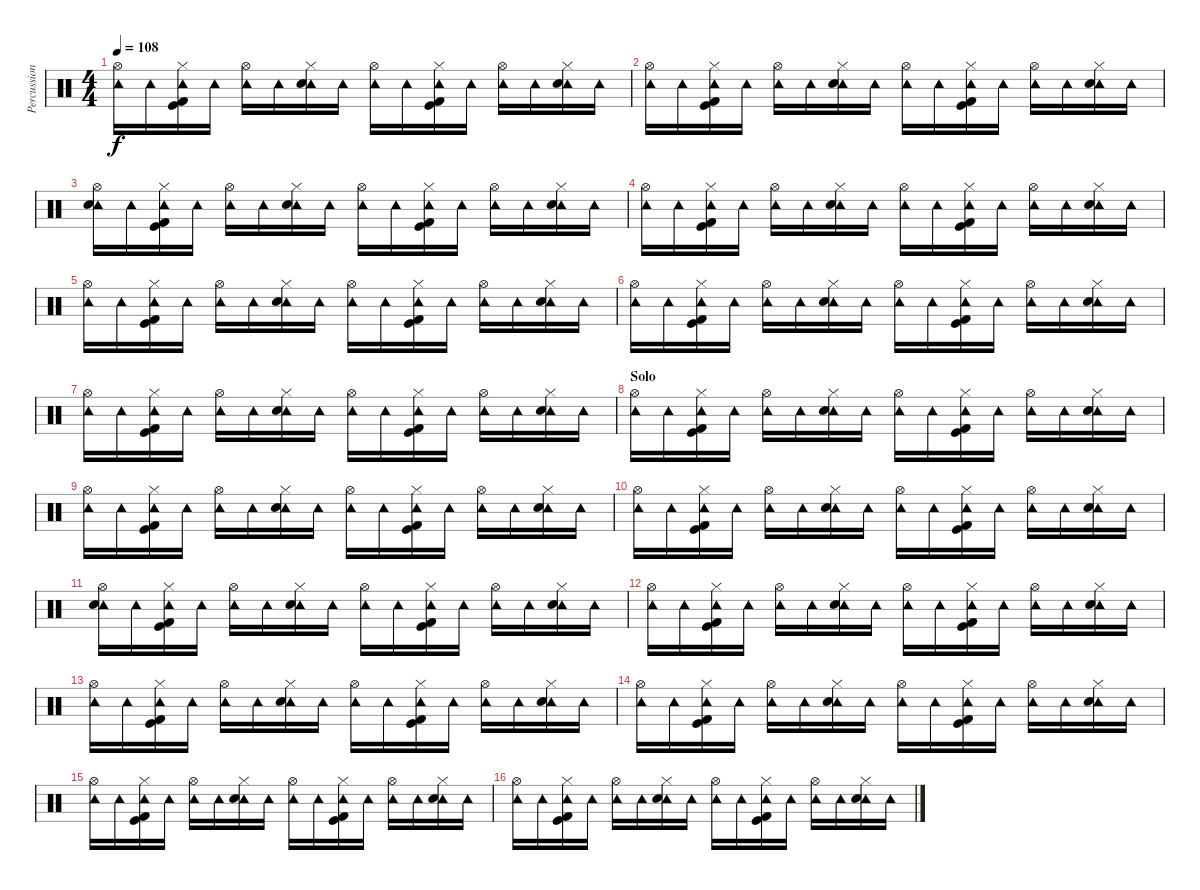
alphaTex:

\track ("Percussion" "Percussion") {instrument percussion}
\staff {score}
\articulation defaults
\ts (4 4)
\tempo 108
\clef neutral
\ks c
("Hi-Hat (open)" "Tambourine (hit)").16{dy f} "Tambourine (hit)".16 ("Hi-Hat (closed)" "Tambourine (hit)" "Kick (hit)" "Kick (hit) 2").16 "Tambourine (hit)".16 ("Hi-Hat (open)" "Tambourine (hit)").16 "Tambourine (hit)".16 ("Hi-Hat (closed)" "Tambourine (hit)" "Snare (hit) 2").16 "Tambourine (hit)".16 ("Hi-Hat (open)" "Tambourine (hit)").16 "Tambourine (hit)".16 ("Hi-Hat (closed)" "Tambourine (hit)" "Kick (hit)" "Kick (hit) 2").16 "Tambourine (hit)".16 ("Hi-Hat (open)" "Tambourine (hit)").16 "Tambourine (hit)".16 ("Hi-Hat (closed)" "Tambourine (hit)" "Snare (hit) 2").16 "Tambourine (hit)".16 |
("Hi-Hat (open)" "Tambourine (hit)").16 "Tambourine (hit)".16 ("Hi-Hat (closed)" "Tambourine (hit)" "Kick (hit)" "Kick (hit) 2").16 "Tambourine (hit)".16 ("Hi-Hat (open)" "Tambourine (hit)").16 "Tambourine (hit)".16 ("Hi-Hat (closed)" "Tambourine (hit)" "Snare (hit) 2").16 "Tambourine (hit)".16 ("Hi-Hat (open)" "Tambourine (hit)").16 "Tambourine (hit)".16 ("Hi-Hat (closed)" "Tambourine (hit)" "Kick (hit)" "Kick (hit) 2").16 "Tambourine (hit)".16 ("Hi-Hat (open)" "Tambourine (hit)").16 "Tambourine (hit)".16 ("Hi-Hat (closed)" "Tambourine (hit)" "Snare (hit) 2").16 "Tambourine (hit)".16 |
("Hi-Hat (open)" "Tambourine (hit)" "Snare (hit) 2").16 "Tambourine (hit)".16 ("Hi-Hat (closed)" "Tambourine (hit)" "Kick (hit)" "Kick (hit) 2").16 "Tambourine (hit)".16 ("Hi-Hat (open)" "Tambourine (hit)").16 "Tambourine (hit)".16 ("Hi-Hat (closed)" "Tambourine (hit)" "Snare (hit) 2").16 "Tambourine (hit)".16 ("Hi-Hat (open)" "Tambourine (hit)").16 "Tambourine (hit)".16 ("Hi-Hat (closed)" "Tambourine (hit)" "Kick (hit)" "Kick (hit) 2").16 "Tambourine (hit)".16 ("Hi-Hat (open)" "Tambourine (hit)").16 "Tambourine (hit)".16 ("Hi-Hat (closed)" "Tambourine (hit)" "Snare (hit) 2").16 "Tambourine (hit)".16 |
("Hi-Hat (open)" "Tambourine (hit)").16 "Tambourine (hit)".16 ("Hi-Hat (closed)" "Tambourine (hit)" "Kick (hit)" "Kick (hit) 2").16 "Tambourine (hit)".16 ("Hi-Hat (open)" "Tambourine (hit)").16 "Tambourine (hit)".16 ("Hi-Hat (closed)" "Tambourine (hit)" "Snare (hit) 2").16 "Tambourine (hit)".16 ("Hi-Hat (open)" "Tambourine (hit)").16 "Tambourine (hit)".16 ("Hi-Hat (closed)" "Tambourine (hit)" "Kick (hit)" "Kick (hit) 2").16 "Tambourine (hit)".16 ("Hi-Hat (open)" "Tambourine (hit)").16 "Tambourine (hit)".16 ("Hi-Hat (closed)" "Tambourine (hit)" "Snare (hit) 2").16 "Tambourine (hit)".16 |
("Hi-Hat (open)" "Tambourine (hit)").16 "Tambourine (hit)".16 ("Hi-Hat (closed)" "Tambourine (hit)" "Kick (hit)" "Kick (hit) 2").16 "Tambourine (hit)".16 ("Hi-Hat (open)" "Tambourine (hit)").16 "Tambourine (hit)".16 ("Hi-Hat (closed)" "Tambourine (hit)" "Snare (hit) 2").16 "Tambourine (hit)".16 ("Hi-Hat (open)" "Tambourine (hit)").16 "Tambourine (hit)".16 ("Hi-Hat (closed)" "Tambourine (hit)" "Kick (hit)" "Kick (hit) 2").16 "Tambourine (hit)".16 ("Hi-Hat (open)" "Tambourine (hit)").16 "Tambourine (hit)".16 ("Hi-Hat (closed)" "Tambourine (hit)" "Snare (hit) 2").16 "Tambourine (hit)".16 |
("Hi-Hat (open)" "Tambourine (hit)").16 "Tambourine (hit)".16 ("Hi-Hat (closed)" "Tambourine (hit)" "Kick (hit)" "Kick (hit) 2").16 "Tambourine (hit)".16 ("Hi-Hat (open)" "Tambourine (hit)").16 "Tambourine (hit)".16 ("Hi-Hat (closed)" "Tambourine (hit)" "Snare (hit) 2").16 "Tambourine (hit)".16 ("Hi-Hat (open)" "Tambourine (hit)").16 "Tambourine (hit)".16 ("Hi-Hat (closed)" "Tambourine (hit)" "Kick (hit)" "Kick (hit) 2").16 "Tambourine (hit)".16 ("Hi-Hat (open)" "Tambourine (hit)").16 "Tambourine (hit)".16 ("Hi-Hat (closed)" "Tambourine (hit)" "Snare (hit) 2").16 "Tambourine (hit)".16 |
("Hi-Hat (open)" "Tambourine (hit)").16 "Tambourine (hit)".16 ("Hi-Hat (closed)" "Tambourine (hit)" "Kick (hit)" "Kick (hit) 2").16 "Tambourine (hit)".16 ("Hi-Hat (open)" "Tambourine (hit)").16 "Tambourine (hit)".16 ("Hi-Hat (closed)" "Tambourine (hit)" "Snare (hit) 2").16 "Tambourine (hit)".16 ("Hi-Hat (open)" "Tambourine (hit)").16 "Tambourine (hit)".16 ("Hi-Hat (closed)" "Tambourine (hit)" "Kick (hit)" "Kick (hit) 2").16 "Tambourine (hit)".16 ("Hi-Hat (open)" "Tambourine (hit)").16 "Tambourine (hit)".16 ("Hi-Hat (closed)" "Tambourine (hit)" "Snare (hit) 2").16 "Tambourine (hit)".16 |
\section ("" "Solo")
("Hi-Hat (open)" "Tambourine (hit)").16 "Tambourine (hit)".16 ("Hi-Hat (closed)" "Tambourine (hit)" "Kick (hit)" "Kick (hit) 2").16 "Tambourine (hit)".16 ("Hi-Hat (open)" "Tambourine (hit)").16 "Tambourine (hit)".16 ("Hi-Hat (closed)" "Tambourine (hit)" "Snare (hit) 2").16 "Tambourine (hit)".16 ("Hi-Hat (open)" "Tambourine (hit)").16 "Tambourine (hit)".16 ("Hi-Hat (closed)" "Tambourine (hit)" "Kick (hit)" "Kick (hit) 2").16 "Tambourine (hit)".16 ("Hi-Hat (open)" "Tambourine (hit)").16 "Tambourine (hit)".16 ("Hi-Hat (closed)" "Tambourine (hit)" "Snare (hit) 2").16 "Tambourine (hit)".16 |
("Hi-Hat (open)" "Tambourine (hit)").16 "Tambourine (hit)".16 ("Hi-Hat (closed)" "Tambourine (hit)" "Kick (hit)" "Kick (hit) 2").16 "Tambourine (hit)".16 ("Hi-Hat (open)" "Tambourine (hit)").16 "Tambourine (hit)".16 ("Hi-Hat (closed)" "Tambourine (hit)" "Snare (hit) 2").16 "Tambourine (hit)".16 ("Hi-Hat (open)" "Tambourine (hit)").16 "Tambourine (hit)".16 ("Hi-Hat (closed)" "Tambourine (hit)" "Kick (hit)" "Kick (hit) 2").16 "Tambourine (hit)".16 ("Hi-Hat (open)" "Tambourine (hit)").16 "Tambourine (hit)".16 ("Hi-Hat (closed)" "Tambourine (hit)" "Snare (hit) 2").16 "Tambourine (hit)".16 |
("Hi-Hat (open)" "Tambourine (hit)").16 "Tambourine (hit)".16 ("Hi-Hat (closed)" "Tambourine (hit)" "Kick (hit)" "Kick (hit) 2").16 "Tambourine (hit)".16 ("Hi-Hat (open)" "Tambourine (hit)").16 "Tambourine (hit)".16 ("Hi-Hat (closed)" "Tambourine (hit)" "Snare (hit) 2").16 "Tambourine (hit)".16 ("Hi-Hat (open)" "Tambourine (hit)").16 "Tambourine (hit)".16 ("Hi-Hat (closed)" "Tambourine (hit)" "Kick (hit)" "Kick (hit) 2").16 "Tambourine (hit)".16 ("Hi-Hat (open)" "Tambourine (hit)").16 "Tambourine (hit)".16 ("Hi-Hat (closed)" "Tambourine (hit)" "Snare (hit) 2").16 "Tambourine (hit)".16 |
("Hi-Hat (open)" "Tambourine (hit)" "Snare (hit) 2").16 "Tambourine (hit)".16 ("Hi-Hat (closed)" "Tambourine (hit)" "Kick (hit)" "Kick (hit) 2").16 "Tambourine (hit)".16 ("Hi-Hat (open)" "Tambourine (hit)").16 "Tambourine (hit)".16 ("Hi-Hat (closed)" "Tambourine (hit)" "Snare (hit) 2").16 "Tambourine (hit)".16 ("Hi-Hat (open)" "Tambourine (hit)").16 "Tambourine (hit)".16 ("Hi-Hat (closed)" "Tambourine (hit)" "Kick (hit)" "Kick (hit) 2").16 "Tambourine (hit)".16 ("Hi-Hat (open)" "Tambourine (hit)").16 "Tambourine (hit)".16 ("Hi-Hat (closed)" "Tambourine (hit)" "Snare (hit) 2").16 "Tambourine (hit)".16 |
("Hi-Hat (open)" "Tambourine (hit)").16 "Tambourine (hit)".16 ("Hi-Hat (closed)" "Tambourine (hit)" "Kick (hit)" "Kick (hit) 2").16 "Tambourine (hit)".16 ("Hi-Hat (open)" "Tambourine (hit)").16 "Tambourine (hit)".16 ("Hi-Hat (closed)" "Tambourine (hit)" "Snare (hit) 2").16 "Tambourine (hit)".16 ("Hi-Hat (open)" "Tambourine (hit)").16 "Tambourine (hit)".16 ("Hi-Hat (closed)" "Tambourine (hit)" "Kick (hit)" "Kick (hit) 2").16 "Tambourine (hit)".16 ("Hi-Hat (open)" "Tambourine (hit)").16 "Tambourine (hit)".16 ("Hi-Hat (closed)" "Tambourine (hit)" "Snare (hit) 2").16 "Tambourine (hit)".16 |
("Hi-Hat (open)" "Tambourine (hit)").16 "Tambourine (hit)".16 ("Hi-Hat (closed)" "Tambourine (hit)" "Kick (hit)" "Kick (hit) 2").16 "Tambourine (hit)".16 ("Hi-Hat (open)" "Tambourine (hit)").16 "Tambourine (hit)".16 ("Hi-Hat (closed)" "Tambourine (hit)" "Snare (hit) 2").16 "Tambourine (hit)".16 ("Hi-Hat (open)" "Tambourine (hit)").16 "Tambourine (hit)".16 ("Hi-Hat (closed)" "Tambourine (hit)" "Kick (hit)" "Kick (hit) 2").16 "Tambourine (hit)".16 ("Hi-Hat (open)" "Tambourine (hit)").16 "Tambourine (hit)".16 ("Hi-Hat (closed)" "Tambourine (hit)" "Snare (hit) 2").16 "Tambourine (hit)".16 |
("Hi-Hat (open)" "Tambourine (hit)").16 "Tambourine (hit)".16 ("Hi-Hat (closed)" "Tambourine (hit)" "Kick (hit)" "Kick (hit) 2").16 "Tambourine (hit)".16 ("Hi-Hat (open)" "Tambourine (hit)").16 "Tambourine (hit)".16 ("Hi-Hat (closed)" "Tambourine (hit)" "Snare (hit) 2").16 "Tambourine (hit)".16 ("Hi-Hat (open)" "Tambourine (hit)").16 "Tambourine (hit)".16 ("Hi-Hat (closed)" "Tambourine (hit)" "Kick (hit)" "Kick (hit) 2").16 "Tambourine (hit)".16 ("Hi-Hat (open)" "Tambourine (hit)").16 "Tambourine (hit)".16 ("Hi-Hat (closed)" "Tambourine (hit)" "Snare (hit) 2").16 "Tambourine (hit)".16 |
("Hi-Hat (open)" "Tambourine (hit)").16 "Tambourine (hit)".16 ("Hi-Hat (closed)" "Tambourine (hit)" "Kick (hit)" "Kick (hit) 2").16 "Tambourine (hit)".16 ("Hi-Hat (open)" "Tambourine (hit)").16 "Tambourine (hit)".16 ("Hi-Hat (closed)" "Tambourine (hit)" "Snare (hit) 2").16 "Tambourine (hit)".16 ("Hi-Hat (open)" "Tambourine (hit)").16 "Tambourine (hit)".16 ("Hi-Hat (closed)" "Tambourine (hit)" "Kick (hit)" "Kick (hit) 2").16 "Tambourine (hit)".16 ("Hi-Hat (open)" "Tambourine (hit)").16 "Tambourine (hit)".16 ("Hi-Hat (closed)" "Tambourine (hit)" "Snare (hit) 2").16 "Tambourine (hit)".16 |
("Hi-Hat (open)" "Tambourine (hit)").16 "Tambourine (hit)".16 ("Hi-Hat (closed)" "Tambourine (hit)" "Kick (hit)" "Kick (hit) 2").16 "Tambourine (hit)".16 ("Hi-Hat (open)" "Tambourine (hit)").16 "Tambourine (hit)".16 ("Hi-Hat (closed)" "Tambourine (hit)" "Snare (hit) 2").16 "Tambourine (hit)".16 ("Hi-Hat (open)" "Tambourine (hit)").16 "Tambourine (hit)".16 ("Hi-Hat (closed)" "Tambourine (hit)" "Kick (hit)" "Kick (hit) 2").16 "Tambourine (hit)".16 ("Hi-Hat (open)" "Tambourine (hit)").16 "Tambourine (hit)".16 ("Hi-Hat (closed)" "Tambourine (hit)" "Snare (hit) 2").16 "Tambourine (hit)".16
